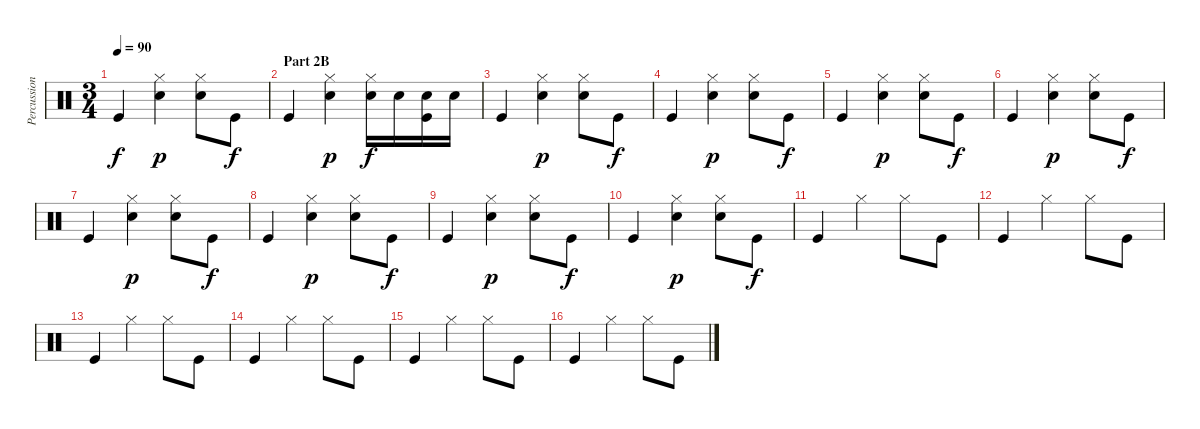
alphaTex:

\track ("Percussion" "Percussion") {instrument percussion}
\staff {score}
\articulation defaults
\ts (3 4)
\tempo 90
\clef neutral
\ks c "Kick (hit)".4{dy f}
("Hi-Hat (closed)" "Electric Snare (hit)").4{dy p} ("Hi-Hat (closed)" "Electric Snare (hit)").8 "Kick (hit)".8{dy f} |
\section ("" "Part 2B")
"Kick (hit)".4 ("Hi-Hat (closed)" "Electric Snare (hit)").4{dy p} ("Hi-Hat (closed)" "Electric Snare (hit)").16{dy f} "Electric Snare (hit)".16 ("Electric Snare (hit)" "Kick (hit)").16 "Electric Snare (hit)".16 |
"Kick (hit)".4 ("Hi-Hat (closed)" "Electric Snare (hit)").4{dy p} ("Hi-Hat (closed)" "Electric Snare (hit)").8 "Kick (hit)".8{dy f} |
"Kick (hit)".4 ("Hi-Hat (closed)" "Electric Snare (hit)").4{dy p} ("Hi-Hat (closed)" "Electric Snare (hit)").8 "Kick (hit)".8{dy f} |
"Kick (hit)".4 ("Hi-Hat (closed)" "Electric Snare (hit)").4{dy p} ("Hi-Hat (closed)" "Electric Snare (hit)").8 "Kick (hit)".8{dy f} |
"Kick (hit)".4 ("Hi-Hat (closed)" "Electric Snare (hit)").4{dy p} ("Hi-Hat (closed)" "Electric Snare (hit)").8 "Kick (hit)".8{dy f} |
"Kick (hit)".4 ("Hi-Hat (closed)" "Electric Snare (hit)").4{dy p} ("Hi-Hat (closed)" "Electric Snare (hit)").8 "Kick (hit)".8{dy f} |
"Kick (hit)".4 ("Hi-Hat (closed)" "Electric Snare (hit)").4{dy p} ("Hi-Hat (closed)" "Electric Snare (hit)").8 "Kick (hit)".8{dy f} |
"Kick (hit)".4 ("Hi-Hat (closed)" "Electric Snare (hit)").4{dy p} ("Hi-Hat (closed)" "Electric Snare (hit)").8 "Kick (hit)".8{dy f} |
"Kick (hit)".4 ("Hi-Hat (closed)" "Electric Snare (hit)").4{dy p} ("Hi-Hat (closed)" "Electric Snare (hit)").8 "Kick (hit)".8{dy f} |
"Kick (hit)".4 "Hi-Hat (closed)".4 "Hi-Hat (closed)".8 "Kick (hit)".8 |
"Kick (hit)".4 "Hi-Hat (closed)".4 "Hi-Hat (closed)".8 "Kick (hit)".8 |
"Kick (hit)".4 "Hi-Hat (closed)".4 "Hi-Hat (closed)".8 "Kick (hit)".8 |
"Kick (hit)".4 "Hi-Hat (closed)".4 "Hi-Hat (closed)".8 "Kick (hit)".8 |
"Kick (hit)".4 "Hi-Hat (closed)".4 "Hi-Hat (closed)".8 "Kick (hit)".8 |
"Kick (hit)".4 "Hi-Hat (closed)".4 "Hi-Hat (closed)".8 "Kick (hit)".8
